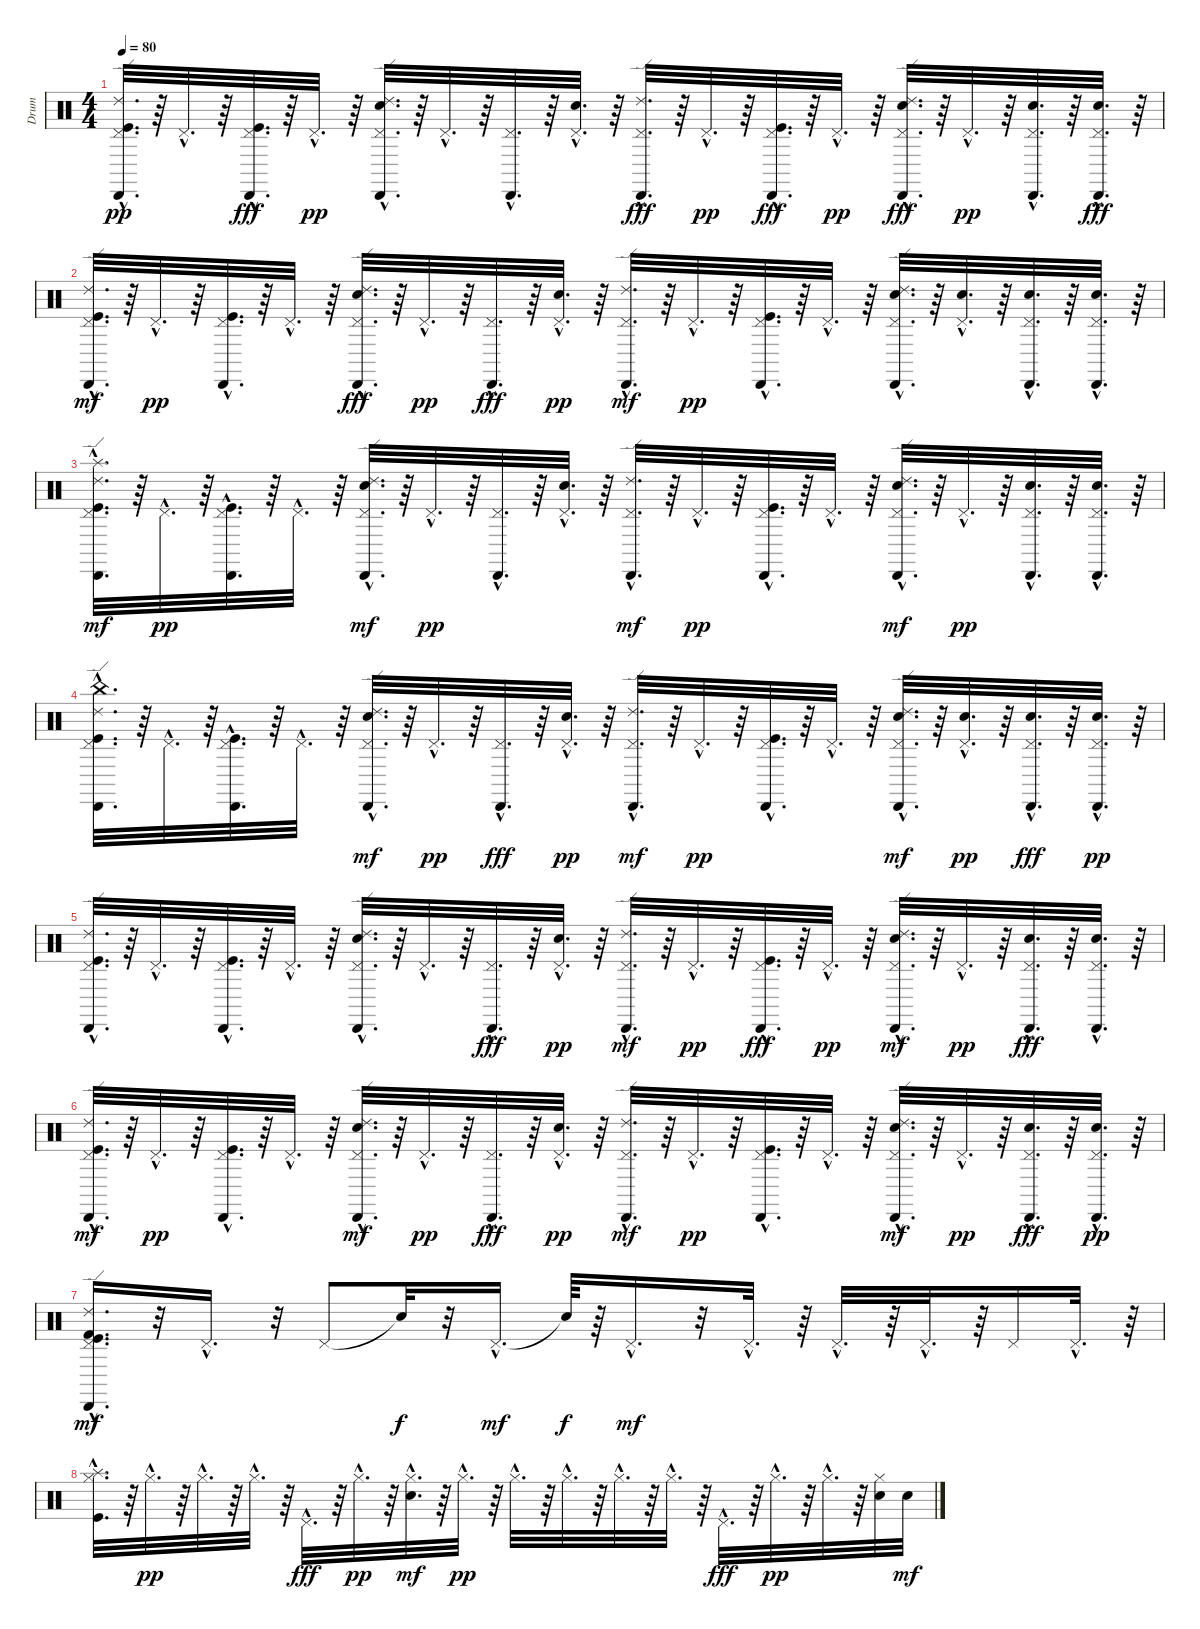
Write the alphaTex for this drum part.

\track ("Drum" "Drum") {instrument percussion}
\staff {score}
\articulation defaults
\ts (4 4)
\tempo 80
\clef neutral
\ks c
("Kick (hit)"{hac} "Ride (edge) 2"{hac} "Cabasa (hit)"{hac} "Pedal Hi-Hat (hit)"{hac}).32{d dy pp} r.64 "Pedal Hi-Hat (hit)"{hac}.32{d} r.64 ("Pedal Hi-Hat (hit)"{hac} "Cabasa (hit)"{hac} "Kick (hit)"{hac}).32{d dy fff} r.64 "Pedal Hi-Hat (hit)"{hac}.32{d dy pp} r.64 ("Snare (hit) 2"{hac} "Ride (edge) 2"{hac} "Cabasa (hit)"{hac} "Pedal Hi-Hat (hit)"{hac}).32{d} r.64 "Pedal Hi-Hat (hit)"{hac}.32{d} r.64 ("Cabasa (hit)"{hac} "Pedal Hi-Hat (hit)"{hac}).32{d} r.64 ("Pedal Hi-Hat (hit)"{hac} "Snare (hit) 2"{hac}).32{d} r.64 ("Ride (edge) 2"{hac} "Pedal Hi-Hat (hit)"{hac} "Cabasa (hit)"{hac}).32{d dy fff} r.64 "Pedal Hi-Hat (hit)"{hac}.32{d dy pp} r.64 ("Pedal Hi-Hat (hit)"{hac} "Cabasa (hit)"{hac} "Kick (hit)"{hac}).32{d dy fff} r.64 "Pedal Hi-Hat (hit)"{hac}.32{d dy pp} r.64 ("Ride (edge) 2"{hac} "Snare (hit) 2"{hac} "Pedal Hi-Hat (hit)"{hac} "Cabasa (hit)"{hac}).32{d dy fff} r.64 "Pedal Hi-Hat (hit)"{hac}.32{d dy pp} r.64 ("Cabasa (hit)"{hac} "Pedal Hi-Hat (hit)"{hac} "Snare (hit) 2"{hac}).32{d} r.64 ("Pedal Hi-Hat (hit)"{hac} "Snare (hit) 2"{hac} "Cabasa (hit)"{hac}).32{d dy fff} r.64 |
("Cabasa (hit)"{hac} "Pedal Hi-Hat (hit)"{hac} "Kick (hit)"{hac} "Ride (edge) 2"{hac}).32{d dy mf} r.64 "Pedal Hi-Hat (hit)"{hac}.32{d dy pp} r.64 ("Cabasa (hit)"{hac} "Pedal Hi-Hat (hit)"{hac} "Kick (hit)"{hac}).32{d} r.64 "Pedal Hi-Hat (hit)"{hac}.32{d} r.64 ("Snare (hit) 2"{hac} "Pedal Hi-Hat (hit)"{hac} "Ride (edge) 2"{hac} "Cabasa (hit)"{hac}).32{d dy fff} r.64 "Pedal Hi-Hat (hit)"{hac}.32{d dy pp} r.64 ("Pedal Hi-Hat (hit)"{hac} "Cabasa (hit)"{hac}).32{d dy fff} r.64 ("Pedal Hi-Hat (hit)"{hac} "Snare (hit) 2"{hac}).32{d dy pp} r.64 ("Cabasa (hit)"{hac} "Pedal Hi-Hat (hit)"{hac} "Ride (edge) 2"{hac}).32{d dy mf} r.64 "Pedal Hi-Hat (hit)"{hac}.32{d dy pp} r.64 ("Kick (hit)"{hac} "Cabasa (hit)"{hac} "Pedal Hi-Hat (hit)"{hac}).32{d} r.64 "Pedal Hi-Hat (hit)"{hac}.32{d} r.64 ("Cabasa (hit)"{hac} "Snare (hit) 2"{hac} "Ride (edge) 2"{hac} "Pedal Hi-Hat (hit)"{hac}).32{d} r.64 ("Snare (hit) 2"{hac} "Pedal Hi-Hat (hit)"{hac}).32{d} r.64 ("Cabasa (hit)"{hac} "Snare (hit) 2"{hac} "Pedal Hi-Hat (hit)"{hac}).32{d} r.64 ("Cabasa (hit)"{hac} "Pedal Hi-Hat (hit)"{hac} "Snare (hit) 2"{hac}).32{d} r.64 |
("Splash (hit)"{hac} "Kick (hit)"{hac} "Cabasa (hit)"{hac} "Pedal Hi-Hat (hit)"{hac} "Ride (edge) 2"{hac}).32{d dy mf} r.64 "Pedal Hi-Hat (hit)"{hac}.32{d dy pp} r.64 ("Kick (hit)"{hac} "Cabasa (hit)"{hac} "Pedal Hi-Hat (hit)"{hac}).32{d} r.64 "Pedal Hi-Hat (hit)"{hac}.32{d} r.64 ("Snare (hit) 2"{hac} "Cabasa (hit)"{hac} "Pedal Hi-Hat (hit)"{hac} "Ride (edge) 2"{hac}).32{d dy mf} r.64 "Pedal Hi-Hat (hit)"{hac}.32{d dy pp} r.64 ("Cabasa (hit)"{hac} "Pedal Hi-Hat (hit)"{hac}).32{d} r.64 ("Snare (hit) 2"{hac} "Pedal Hi-Hat (hit)"{hac}).32{d} r.64 ("Cabasa (hit)"{hac} "Pedal Hi-Hat (hit)"{hac} "Ride (edge) 2"{hac}).32{d dy mf} r.64 "Pedal Hi-Hat (hit)"{hac}.32{d dy pp} r.64 ("Kick (hit)"{hac} "Cabasa (hit)"{hac} "Pedal Hi-Hat (hit)"{hac}).32{d} r.64 "Pedal Hi-Hat (hit)"{hac}.32{d} r.64 ("Snare (hit) 2"{hac} "Cabasa (hit)"{hac} "Pedal Hi-Hat (hit)"{hac} "Ride (edge) 2"{hac}).32{d dy mf} r.64 "Pedal Hi-Hat (hit)"{hac}.32{d dy pp} r.64 ("Snare (hit) 2"{hac} "Cabasa (hit)"{hac} "Pedal Hi-Hat (hit)"{hac}).32{d} r.64 ("Snare (hit) 2"{hac} "Cabasa (hit)"{hac} "Pedal Hi-Hat (hit)"{hac}).32{d} r.64 |
("Cabasa (hit)"{hac} "Ride (edge) 2"{hac} "Pedal Hi-Hat (hit)"{hac} "China (hit)"{hac} "Kick (hit)"{hac}).32{d} r.64 "Pedal Hi-Hat (hit)"{hac}.32{d} r.64 ("Kick (hit)"{hac} "Cabasa (hit)"{hac} "Pedal Hi-Hat (hit)"{hac}).32{d} r.64 "Pedal Hi-Hat (hit)"{hac}.32{d} r.64 ("Cabasa (hit)"{hac} "Pedal Hi-Hat (hit)"{hac} "Ride (edge) 2"{hac} "Snare (hit) 2"{hac}).32{d dy mf} r.64 "Pedal Hi-Hat (hit)"{hac}.32{d dy pp} r.64 ("Pedal Hi-Hat (hit)"{hac} "Cabasa (hit)"{hac}).32{d dy fff} r.64 ("Pedal Hi-Hat (hit)"{hac} "Snare (hit) 2"{hac}).32{d dy pp} r.64 ("Cabasa (hit)"{hac} "Pedal Hi-Hat (hit)"{hac} "Ride (edge) 2"{hac}).32{d dy mf} r.64 "Pedal Hi-Hat (hit)"{hac}.32{d dy pp} r.64 ("Cabasa (hit)"{hac} "Kick (hit)"{hac} "Pedal Hi-Hat (hit)"{hac}).32{d} r.64 "Pedal Hi-Hat (hit)"{hac}.32{d} r.64 ("Pedal Hi-Hat (hit)"{hac} "Cabasa (hit)"{hac} "Snare (hit) 2"{hac} "Ride (edge) 2"{hac}).32{d dy mf} r.64 ("Snare (hit) 2"{hac} "Pedal Hi-Hat (hit)"{hac}).32{d dy pp} r.64 ("Snare (hit) 2"{hac} "Pedal Hi-Hat (hit)"{hac} "Cabasa (hit)"{hac}).32{d dy fff} r.64 ("Cabasa (hit)"{hac} "Snare (hit) 2"{hac} "Pedal Hi-Hat (hit)"{hac}).32{d dy pp} r.64 |
("Cabasa (hit)"{hac} "Kick (hit)"{hac} "Ride (edge) 2"{hac} "Pedal Hi-Hat (hit)"{hac}).32{d} r.64 "Pedal Hi-Hat (hit)"{hac}.32{d} r.64 ("Cabasa (hit)"{hac} "Pedal Hi-Hat (hit)"{hac} "Kick (hit)"{hac}).32{d} r.64 "Pedal Hi-Hat (hit)"{hac}.32{d} r.64 ("Cabasa (hit)"{hac} "Ride (edge) 2"{hac} "Pedal Hi-Hat (hit)"{hac} "Snare (hit) 2"{hac}).32{d} r.64 "Pedal Hi-Hat (hit)"{hac}.32{d} r.64 ("Pedal Hi-Hat (hit)"{hac} "Cabasa (hit)"{hac}).32{d dy fff} r.64 ("Snare (hit) 2"{hac} "Pedal Hi-Hat (hit)"{hac}).32{d dy pp} r.64 ("Cabasa (hit)"{hac} "Pedal Hi-Hat (hit)"{hac} "Ride (edge) 2"{hac}).32{d dy mf} r.64 "Pedal Hi-Hat (hit)"{hac}.32{d dy pp} r.64 ("Pedal Hi-Hat (hit)"{hac} "Kick (hit)"{hac} "Cabasa (hit)"{hac}).32{d dy fff} r.64 "Pedal Hi-Hat (hit)"{hac}.32{d dy pp} r.64 ("Snare (hit) 2"{hac} "Cabasa (hit)"{hac} "Pedal Hi-Hat (hit)"{hac} "Ride (edge) 2"{hac}).32{d dy mf} r.64 "Pedal Hi-Hat (hit)"{hac}.32{d dy pp} r.64 ("Pedal Hi-Hat (hit)"{hac} "Cabasa (hit)"{hac} "Snare (hit) 2"{hac}).32{d dy fff} r.64 ("Snare (hit) 2"{hac} "Pedal Hi-Hat (hit)"{hac} "Cabasa (hit)"{hac}).32{d} r.64 |
("Pedal Hi-Hat (hit)"{hac} "Cabasa (hit)"{hac} "Ride (edge) 2"{hac} "Kick (hit)"{hac}).32{d dy mf} r.64 "Pedal Hi-Hat (hit)"{hac}.32{d dy pp} r.64 ("Kick (hit)"{hac} "Cabasa (hit)"{hac} "Pedal Hi-Hat (hit)"{hac}).32{d} r.64 "Pedal Hi-Hat (hit)"{hac}.32{d} r.64 ("Pedal Hi-Hat (hit)"{hac} "Cabasa (hit)"{hac} "Ride (edge) 2"{hac} "Snare (hit) 2"{hac}).32{d dy mf} r.64 "Pedal Hi-Hat (hit)"{hac}.32{d dy pp} r.64 ("Pedal Hi-Hat (hit)"{hac} "Cabasa (hit)"{hac}).32{d dy fff} r.64 ("Snare (hit) 2"{hac} "Pedal Hi-Hat (hit)"{hac}).32{d dy pp} r.64 ("Cabasa (hit)"{hac} "Pedal Hi-Hat (hit)"{hac} "Ride (edge) 2"{hac}).32{d dy mf} r.64 "Pedal Hi-Hat (hit)"{hac}.32{d dy pp} r.64 ("Kick (hit)"{hac} "Cabasa (hit)"{hac} "Pedal Hi-Hat (hit)"{hac}).32{d} r.64 "Pedal Hi-Hat (hit)"{hac}.32{d} r.64 ("Cabasa (hit)"{hac} "Pedal Hi-Hat (hit)"{hac} "Snare (hit) 2"{hac} "Ride (edge) 2"{hac}).32{d dy mf} r.64 "Pedal Hi-Hat (hit)"{hac}.32{d dy pp} r.64 ("Snare (hit) 2"{hac} "Pedal Hi-Hat (hit)"{hac} "Cabasa (hit)"{hac}).32{d dy fff} r.64 ("Cabasa (hit)"{hac} "Snare (hit) 2"{hac} "Pedal Hi-Hat (hit)"{hac}).32{d dy pp} r.64 |
("Kick (hit) 2"{hac} "Pedal Hi-Hat (hit)"{hac} "Cabasa (hit)"{hac} "Ride (edge) 2"{hac} "Kick (hit)"{hac}).16{d dy mf} r.32 "Pedal Hi-Hat (hit)"{hac}.16{d} r.32 "Pedal Hi-Hat (hit)".8 "Snare (hit)"{t}.32{dy f} r.32 "Pedal Hi-Hat (hit)"{hac}.16{d dy mf} "Snare (hit)"{t}.64{dy f} r.64 "Pedal Hi-Hat (hit)"{hac}.16{d dy mf} r.32 "Pedal Hi-Hat (hit)"{hac}.32{d} r.64 "Pedal Hi-Hat (hit)"{hac}.32{d} r.64 "Pedal Hi-Hat (hit)"{hac}.32{d} r.64 "Pedal Hi-Hat (hit)".16 "Pedal Hi-Hat (hit)"{hac}.32{d} r.64 |
("Splash (hit)"{hac} "Hi-Hat (closed)"{hac} "Kick (hit)"{hac}).32{d} r.64 "Hi-Hat (closed)"{hac}.32{d dy pp} r.64 "Hi-Hat (closed)"{hac}.32{d} r.64 "Hi-Hat (closed)"{hac}.32{d} r.64 "Pedal Hi-Hat (hit)"{hac}.32{d dy fff} r.64 "Hi-Hat (closed)"{hac}.32{d dy pp} r.64 ("Hi-Hat (closed)"{hac} "Electric Snare (hit)"{hac}).32{d dy mf} r.64 "Hi-Hat (closed)"{hac}.32{d dy pp} r.64 "Hi-Hat (closed)"{hac}.32{d} r.64 "Hi-Hat (closed)"{hac}.32{d} r.64 "Hi-Hat (closed)"{hac}.32{d} r.64 "Hi-Hat (closed)"{hac}.32{d} r.64 "Pedal Hi-Hat (hit)"{hac}.32{d dy fff} r.64 "Hi-Hat (closed)"{hac}.32{d dy pp} r.64 "Hi-Hat (closed)"{hac}.32{d} r.64 ("Electric Snare (hit)" "Hi-Hat (closed)").32 "Electric Snare (hit)".32{dy mf}
